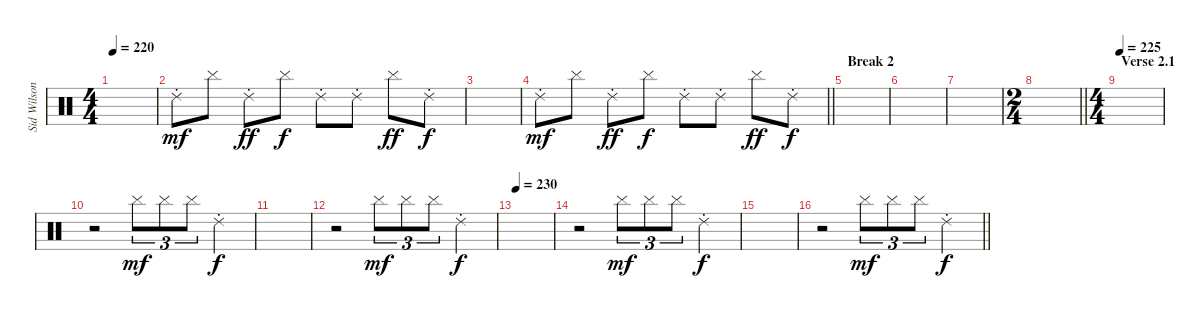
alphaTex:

\track ("Sid Wilson" "Sid Wilson") {instrument percussion}
\staff {score}
\articulation defaults
\ts (4 4)
\tempo 220
\clef neutral
\ks c
|
"Ride (choke) 2".8{dy mf} "Cymbal (hit)".8 "Ride (choke) 2".8{dy ff} "Cymbal (hit)".8{dy f} "Ride (choke) 2".8 "Ride (choke) 2".8 "Cymbal (hit)".8{dy ff} "Ride (choke) 2".8{dy f} |
|
\barLineRight lightlight "Ride (choke) 2".8{dy mf} "Cymbal (hit)".8 "Ride (choke) 2".8{dy ff} "Cymbal (hit)".8{dy f} "Ride (choke) 2".8 "Ride (choke) 2".8 "Cymbal (hit)".8{dy ff} "Ride (choke) 2".8{dy f}
|
\section ("" "Break 2")
|
|
|
\ts (2 4)
\barLineRight lightlight
|
\ts (4 4)
\section ("" "Verse 2.1")
\tempo 225
|
r.2 "Cymbal (hit)".8{tu (3 2) dy mf} "Cymbal (hit)".8{tu (3 2)} "Cymbal (hit)".8{tu (3 2)} "Ride (choke) 2".4{dy f} |
|
r.2 "Cymbal (hit)".8{tu (3 2) dy mf} "Cymbal (hit)".8{tu (3 2)} "Cymbal (hit)".8{tu (3 2)} "Ride (choke) 2".4{dy f} |
\tempo 230
|
r.2 "Cymbal (hit)".8{tu (3 2) dy mf} "Cymbal (hit)".8{tu (3 2)} "Cymbal (hit)".8{tu (3 2)} "Ride (choke) 2".4{dy f} |
|
\barLineRight lightlight
r.2 "Cymbal (hit)".8{tu (3 2) dy mf} "Cymbal (hit)".8{tu (3 2)} "Cymbal (hit)".8{tu (3 2)} "Ride (choke) 2".4{dy f}
